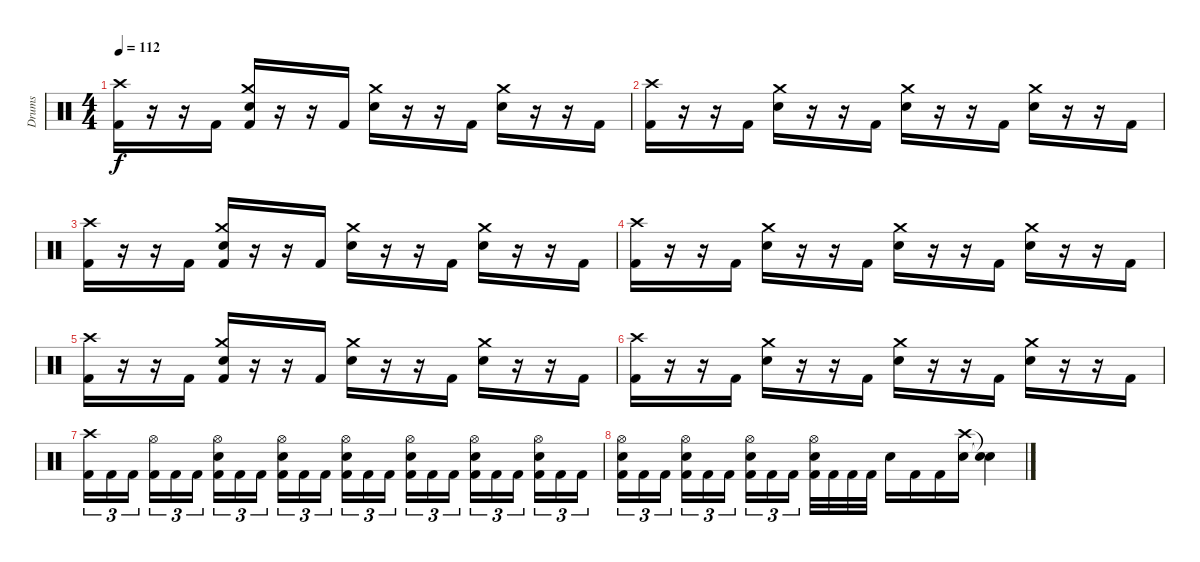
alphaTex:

\track ("Drums" "Drums") {instrument percussion}
\staff
\articulation defaults
\ts (4 4)
\tempo 112
\clef neutral
\ks c
("Crash high (hit)" "Kick (hit) 2").16{dy f} r.16 r.16 "Kick (hit) 2".16 ("Crash medium (hit)" "Snare (hit) 2" "Kick (hit) 2").16 r.16 r.16 "Kick (hit) 2".16 ("Crash medium (hit)" "Snare (hit) 2").16 r.16 r.16 "Kick (hit) 2".16 ("Crash medium (hit)" "Snare (hit) 2").16 r.16 r.16 "Kick (hit) 2".16 |
("Crash high (hit)" "Kick (hit) 2").16 r.16 r.16 "Kick (hit) 2".16 ("Crash medium (hit)" "Snare (hit) 2").16 r.16 r.16 "Kick (hit) 2".16 ("Crash medium (hit)" "Snare (hit) 2").16 r.16 r.16 "Kick (hit) 2".16 ("Crash medium (hit)" "Snare (hit) 2").16 r.16 r.16 "Kick (hit) 2".16 |
("Crash high (hit)" "Kick (hit) 2").16 r.16 r.16 "Kick (hit) 2".16 ("Crash medium (hit)" "Snare (hit) 2" "Kick (hit) 2").16 r.16 r.16 "Kick (hit) 2".16 ("Crash medium (hit)" "Snare (hit) 2").16 r.16 r.16 "Kick (hit) 2".16 ("Crash medium (hit)" "Snare (hit) 2").16 r.16 r.16 "Kick (hit) 2".16 |
("Crash high (hit)" "Kick (hit) 2").16 r.16 r.16 "Kick (hit) 2".16 ("Crash medium (hit)" "Snare (hit) 2").16 r.16 r.16 "Kick (hit) 2".16 ("Crash medium (hit)" "Snare (hit) 2").16 r.16 r.16 "Kick (hit) 2".16 ("Crash medium (hit)" "Snare (hit) 2").16 r.16 r.16 "Kick (hit) 2".16 |
("Crash high (hit)" "Kick (hit) 2").16 r.16 r.16 "Kick (hit) 2".16 ("Crash medium (hit)" "Snare (hit) 2" "Kick (hit) 2").16 r.16 r.16 "Kick (hit) 2".16 ("Crash medium (hit)" "Snare (hit) 2").16 r.16 r.16 "Kick (hit) 2".16 ("Crash medium (hit)" "Snare (hit) 2").16 r.16 r.16 "Kick (hit) 2".16 |
("Crash high (hit)" "Kick (hit) 2").16 r.16 r.16 "Kick (hit) 2".16 ("Crash medium (hit)" "Snare (hit) 2").16 r.16 r.16 "Kick (hit) 2".16 ("Crash medium (hit)" "Snare (hit) 2").16 r.16 r.16 "Kick (hit) 2".16 ("Crash medium (hit)" "Snare (hit) 2").16 r.16 r.16 "Kick (hit) 2".16 |
("Crash high (hit)" "Kick (hit) 2").16{tu (3 2)} "Kick (hit) 2".16{tu (3 2)} "Kick (hit) 2".16{tu (3 2) beam splitsecondary} ("Hi-Hat (open)" "Kick (hit) 2").16{tu (3 2)} "Kick (hit) 2".16{tu (3 2)} "Kick (hit) 2".16{tu (3 2)} ("Hi-Hat (open)" "Snare (hit) 2" "Kick (hit) 2").16{tu (3 2)} "Kick (hit) 2".16{tu (3 2)} "Kick (hit) 2".16{tu (3 2) beam splitsecondary} ("Hi-Hat (open)" "Snare (hit) 2" "Kick (hit) 2").16{tu (3 2)} "Kick (hit) 2".16{tu (3 2)} "Kick (hit) 2".16{tu (3 2)} ("Hi-Hat (open)" "Snare (hit) 2" "Kick (hit) 2").16{tu (3 2)} "Kick (hit) 2".16{tu (3 2)} "Kick (hit) 2".16{tu (3 2) beam splitsecondary} ("Hi-Hat (open)" "Snare (hit) 2" "Kick (hit) 2").16{tu (3 2)} "Kick (hit) 2".16{tu (3 2)} "Kick (hit) 2".16{tu (3 2)} ("Hi-Hat (open)" "Snare (hit) 2" "Kick (hit) 2").16{tu (3 2)} "Kick (hit) 2".16{tu (3 2)} "Kick (hit) 2".16{tu (3 2) beam splitsecondary} ("Hi-Hat (open)" "Snare (hit) 2" "Kick (hit) 2").16{tu (3 2)} "Kick (hit) 2".16{tu (3 2)} "Kick (hit) 2".16{tu (3 2)} |
("Hi-Hat (open)" "Snare (hit) 2" "Kick (hit) 2").16{tu (3 2)} "Kick (hit) 2".16{tu (3 2)} "Kick (hit) 2".16{tu (3 2) beam splitsecondary} ("Hi-Hat (open)" "Snare (hit) 2" "Kick (hit) 2").16{tu (3 2)} "Kick (hit) 2".16{tu (3 2)} "Kick (hit) 2".16{tu (3 2)} ("Hi-Hat (open)" "Snare (hit) 2" "Kick (hit) 2").16{tu (3 2)} "Kick (hit) 2".16{tu (3 2)} "Kick (hit) 2".16{tu (3 2) beam splitsecondary} ("Hi-Hat (open)" "Snare (hit) 2" "Kick (hit) 2").32 "Kick (hit) 2".32 "Kick (hit) 2".32 "Kick (hit) 2".32 "Snare (hit) 2".16 "Kick (hit) 2".16 "Kick (hit) 2".16 ("Crash high (hit)" "Snare (hit) 2").16 ("Snare (hit)"{t} "Snare (hit)"{t}).4
